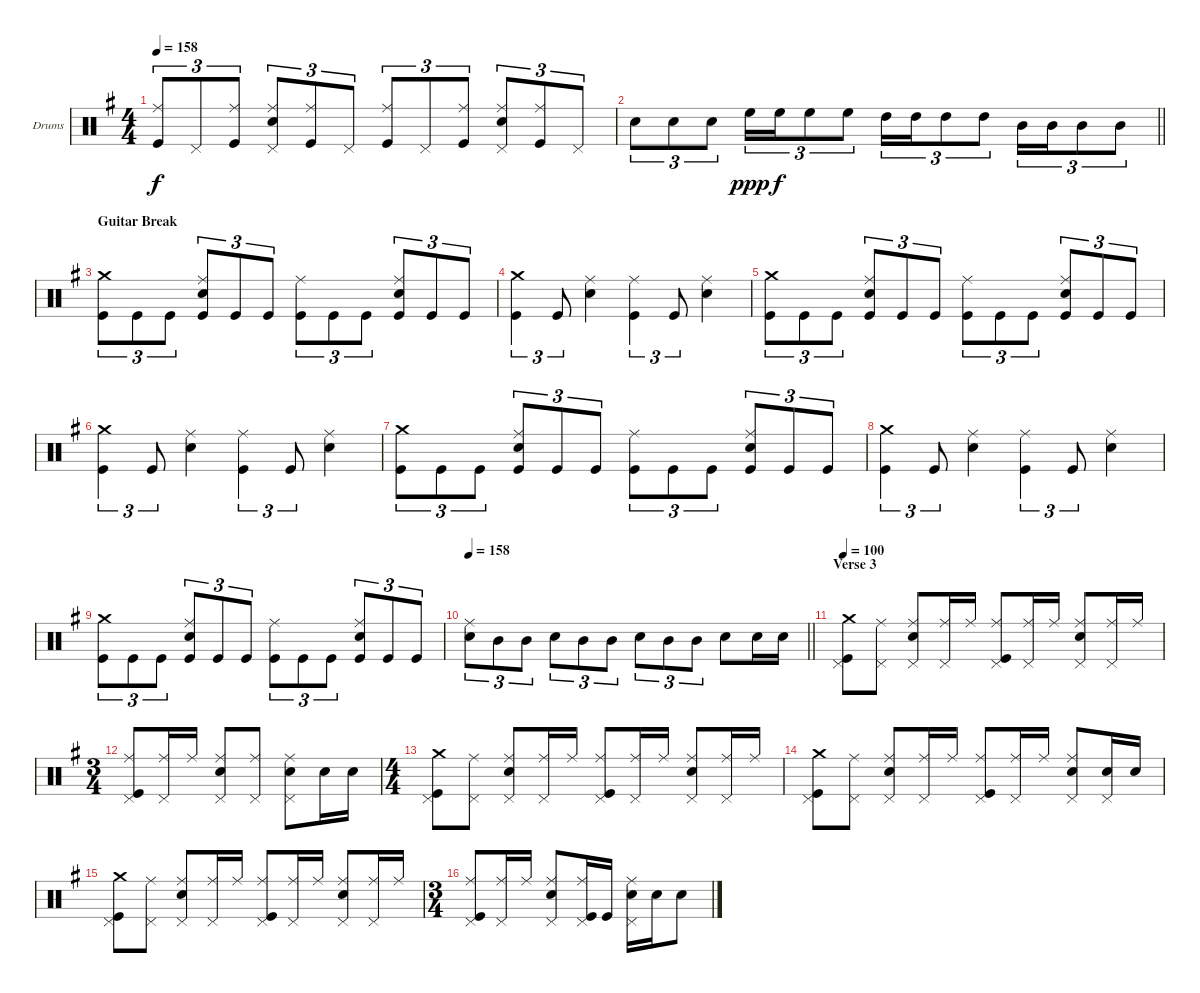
\bracketExtendMode groupsimilarinstruments
\firstSystemTrackNameOrientation horizontal
\otherSystemsTrackNameOrientation horizontal
\track ("Барабаны" "Drums") {instrument percussion}
\staff {score}
\articulation defaults
\ts (4 4)
\tempo 158
\clef neutral
\ks eminor
("Kick (hit)" "Ride (middle)").8{tu (3 2) dy f} "Pedal Hi-Hat (hit)".8{tu (3 2)} ("Kick (hit)" "Ride (middle)").8{tu (3 2)} ("Snare (hit) 2" "Ride (middle)" "Pedal Hi-Hat (hit)").8{tu (3 2)} ("Kick (hit)" "Ride (middle)").8{tu (3 2)} "Pedal Hi-Hat (hit)".8{tu (3 2)} ("Kick (hit)" "Ride (middle)").8{tu (3 2)} "Pedal Hi-Hat (hit)".8{tu (3 2)} ("Kick (hit)" "Ride (middle)").8{tu (3 2)} ("Snare (hit) 2" "Ride (middle)" "Pedal Hi-Hat (hit)").8{tu (3 2)} ("Kick (hit)" "Ride (middle)").8{tu (3 2)} "Pedal Hi-Hat (hit)".8{tu (3 2)} |
\barLineRight lightlight "Snare (hit) 2".8{tu (3 2)} "Snare (hit) 2".8{tu (3 2)} "Snare (hit) 2".8{tu (3 2)} "High Floor Tom (hit)".16{tu (3 2) dy ppp} "High Floor Tom (hit)".16{tu (3 2) dy f} "High Floor Tom (hit)".8{tu (3 2)} "High Floor Tom (hit)".8{tu (3 2)} "High Tom (hit)".16{tu (3 2)} "High Tom (hit)".16{tu (3 2)} "High Tom (hit)".8{tu (3 2)} "High Tom (hit)".8{tu (3 2)} "Mid Tom (hit)".16{tu (3 2)} "Mid Tom (hit)".16{tu (3 2)} "Mid Tom (hit)".8{tu (3 2)} "Mid Tom (hit)".8{tu (3 2)}
|
\section ("" "Guitar Break")
("Kick (hit)" "Crash medium (hit)").8{tu (3 2)} "Kick (hit)".8{tu (3 2)} "Kick (hit)".8{tu (3 2)} ("Kick (hit)" "Snare (hit) 2" "Ride (middle)").8{tu (3 2)} "Kick (hit)".8{tu (3 2)} "Kick (hit)".8{tu (3 2)} ("Kick (hit)" "Ride (middle)").8{tu (3 2)} "Kick (hit)".8{tu (3 2)} "Kick (hit)".8{tu (3 2)} ("Kick (hit)" "Snare (hit) 2" "Ride (middle)").8{tu (3 2)} "Kick (hit)".8{tu (3 2)} "Kick (hit)".8{tu (3 2)} |
("Kick (hit)" "Crash medium (hit)").4{tu (3 2)} "Kick (hit)".8{tu (3 2)} ("Snare (hit) 2" "Ride (middle)").4 ("Kick (hit)" "Ride (middle)").4{tu (3 2)} "Kick (hit)".8{tu (3 2)} ("Snare (hit) 2" "Ride (middle)").4 |
("Kick (hit)" "Crash medium (hit)").8{tu (3 2)} "Kick (hit)".8{tu (3 2)} "Kick (hit)".8{tu (3 2)} ("Kick (hit)" "Snare (hit) 2" "Ride (middle)").8{tu (3 2)} "Kick (hit)".8{tu (3 2)} "Kick (hit)".8{tu (3 2)} ("Kick (hit)" "Ride (middle)").8{tu (3 2)} "Kick (hit)".8{tu (3 2)} "Kick (hit)".8{tu (3 2)} ("Kick (hit)" "Snare (hit) 2" "Ride (middle)").8{tu (3 2)} "Kick (hit)".8{tu (3 2)} "Kick (hit)".8{tu (3 2)} |
("Kick (hit)" "Crash medium (hit)").4{tu (3 2)} "Kick (hit)".8{tu (3 2)} ("Snare (hit) 2" "Ride (middle)").4 ("Kick (hit)" "Ride (middle)").4{tu (3 2)} "Kick (hit)".8{tu (3 2)} ("Snare (hit) 2" "Ride (middle)").4 |
("Kick (hit)" "Crash medium (hit)").8{tu (3 2)} "Kick (hit)".8{tu (3 2)} "Kick (hit)".8{tu (3 2)} ("Kick (hit)" "Snare (hit) 2" "Ride (middle)").8{tu (3 2)} "Kick (hit)".8{tu (3 2)} "Kick (hit)".8{tu (3 2)} ("Kick (hit)" "Ride (middle)").8{tu (3 2)} "Kick (hit)".8{tu (3 2)} "Kick (hit)".8{tu (3 2)} ("Kick (hit)" "Snare (hit) 2" "Ride (middle)").8{tu (3 2)} "Kick (hit)".8{tu (3 2)} "Kick (hit)".8{tu (3 2)} |
("Kick (hit)" "Crash medium (hit)").4{tu (3 2)} "Kick (hit)".8{tu (3 2)} ("Snare (hit) 2" "Ride (middle)").4 ("Kick (hit)" "Ride (middle)").4{tu (3 2)} "Kick (hit)".8{tu (3 2)} ("Snare (hit) 2" "Ride (middle)").4 |
("Kick (hit)" "Crash medium (hit)").8{tu (3 2)} "Kick (hit)".8{tu (3 2)} "Kick (hit)".8{tu (3 2)} ("Kick (hit)" "Snare (hit) 2" "Ride (middle)").8{tu (3 2)} "Kick (hit)".8{tu (3 2)} "Kick (hit)".8{tu (3 2)} ("Kick (hit)" "Ride (middle)").8{tu (3 2)} "Kick (hit)".8{tu (3 2)} "Kick (hit)".8{tu (3 2)} ("Kick (hit)" "Snare (hit) 2" "Ride (middle)").8{tu (3 2)} "Kick (hit)".8{tu (3 2)} "Kick (hit)".8{tu (3 2)} |
\tempo 158
\barLineRight lightlight
("Snare (hit) 2" "Ride (middle)").8{tu (3 2)} "Mid Tom (hit)".8{tu (3 2)} "Mid Tom (hit)".8{tu (3 2)} "Snare (hit) 2".8{tu (3 2)} "Mid Tom (hit)".8{tu (3 2)} "Mid Tom (hit)".8{tu (3 2)} "Snare (hit) 2".8{tu (3 2)} "Mid Tom (hit)".8{tu (3 2)} "Mid Tom (hit)".8{tu (3 2)} "Snare (hit) 2".8 "Snare (hit) 2".16 "Snare (hit) 2".16 |
\section ("" "Verse 3")
\tempo 100
("Crash medium (hit)" "Kick (hit)" "Pedal Hi-Hat (hit)").8 ("Pedal Hi-Hat (hit)" "Ride (middle)").8 ("Ride (middle)" "Snare (hit) 2" "Pedal Hi-Hat (hit)").8 ("Ride (middle)" "Pedal Hi-Hat (hit)").16 "Ride (middle)".16 ("Ride (middle)" "Kick (hit)" "Pedal Hi-Hat (hit)").8 ("Ride (middle)" "Pedal Hi-Hat (hit)").16 "Ride (middle)".16 ("Ride (middle)" "Snare (hit) 2" "Pedal Hi-Hat (hit)").8 ("Ride (middle)" "Pedal Hi-Hat (hit)").16 "Ride (middle)".16 |
\ts (3 4)
\beaming (8 2 2 2)
("Ride (middle)" "Kick (hit)" "Pedal Hi-Hat (hit)").8 ("Ride (middle)" "Pedal Hi-Hat (hit)").16 "Ride (middle)".16 ("Ride (middle)" "Snare (hit) 2" "Pedal Hi-Hat (hit)").8 ("Ride (middle)" "Pedal Hi-Hat (hit)").8 ("Snare (hit) 2" "Pedal Hi-Hat (hit)" "Ride (middle)").8 "Snare (hit) 2".16 "Snare (hit) 2".16 |
\ts (4 4)
\beaming (8 2 2 2 2)
("Crash medium (hit)" "Kick (hit)" "Pedal Hi-Hat (hit)").8 ("Pedal Hi-Hat (hit)" "Ride (middle)").8 ("Ride (middle)" "Snare (hit) 2" "Pedal Hi-Hat (hit)").8 ("Ride (middle)" "Pedal Hi-Hat (hit)").16 "Ride (middle)".16 ("Ride (middle)" "Kick (hit)" "Pedal Hi-Hat (hit)").8 ("Ride (middle)" "Pedal Hi-Hat (hit)").16 "Ride (middle)".16 ("Ride (middle)" "Snare (hit) 2" "Pedal Hi-Hat (hit)").8 ("Ride (middle)" "Pedal Hi-Hat (hit)").16 "Ride (middle)".16 |
("Crash medium (hit)" "Kick (hit)" "Pedal Hi-Hat (hit)").8 ("Pedal Hi-Hat (hit)" "Ride (middle)").8 ("Ride (middle)" "Snare (hit) 2" "Pedal Hi-Hat (hit)").8 ("Ride (middle)" "Pedal Hi-Hat (hit)").16 "Ride (middle)".16 ("Ride (middle)" "Kick (hit)" "Pedal Hi-Hat (hit)").8 ("Ride (middle)" "Pedal Hi-Hat (hit)").16 "Ride (middle)".16 ("Ride (middle)" "Snare (hit) 2" "Pedal Hi-Hat (hit)").8 ("Snare (hit) 2" "Pedal Hi-Hat (hit)").16 "Snare (hit) 2".16 |
("Crash medium (hit)" "Kick (hit)" "Pedal Hi-Hat (hit)").8 ("Pedal Hi-Hat (hit)" "Ride (middle)").8 ("Ride (middle)" "Snare (hit) 2" "Pedal Hi-Hat (hit)").8 ("Ride (middle)" "Pedal Hi-Hat (hit)").16 "Ride (middle)".16 ("Ride (middle)" "Kick (hit)" "Pedal Hi-Hat (hit)").8 ("Ride (middle)" "Pedal Hi-Hat (hit)").16 "Ride (middle)".16 ("Ride (middle)" "Snare (hit) 2" "Pedal Hi-Hat (hit)").8 ("Ride (middle)" "Pedal Hi-Hat (hit)").16 "Ride (middle)".16 |
\ts (3 4)
\beaming (8 2 2 2 2)
("Ride (middle)" "Kick (hit)" "Pedal Hi-Hat (hit)").8 ("Ride (middle)" "Pedal Hi-Hat (hit)").16 "Ride (middle)".16 ("Ride (middle)" "Snare (hit) 2" "Pedal Hi-Hat (hit)").8 ("Ride (middle)" "Pedal Hi-Hat (hit)" "Kick (hit)").16 "Kick (hit)".16 ("Snare (hit) 2" "Pedal Hi-Hat (hit)" "Ride (middle)").16 "Snare (hit) 2".16 "Snare (hit) 2".8
